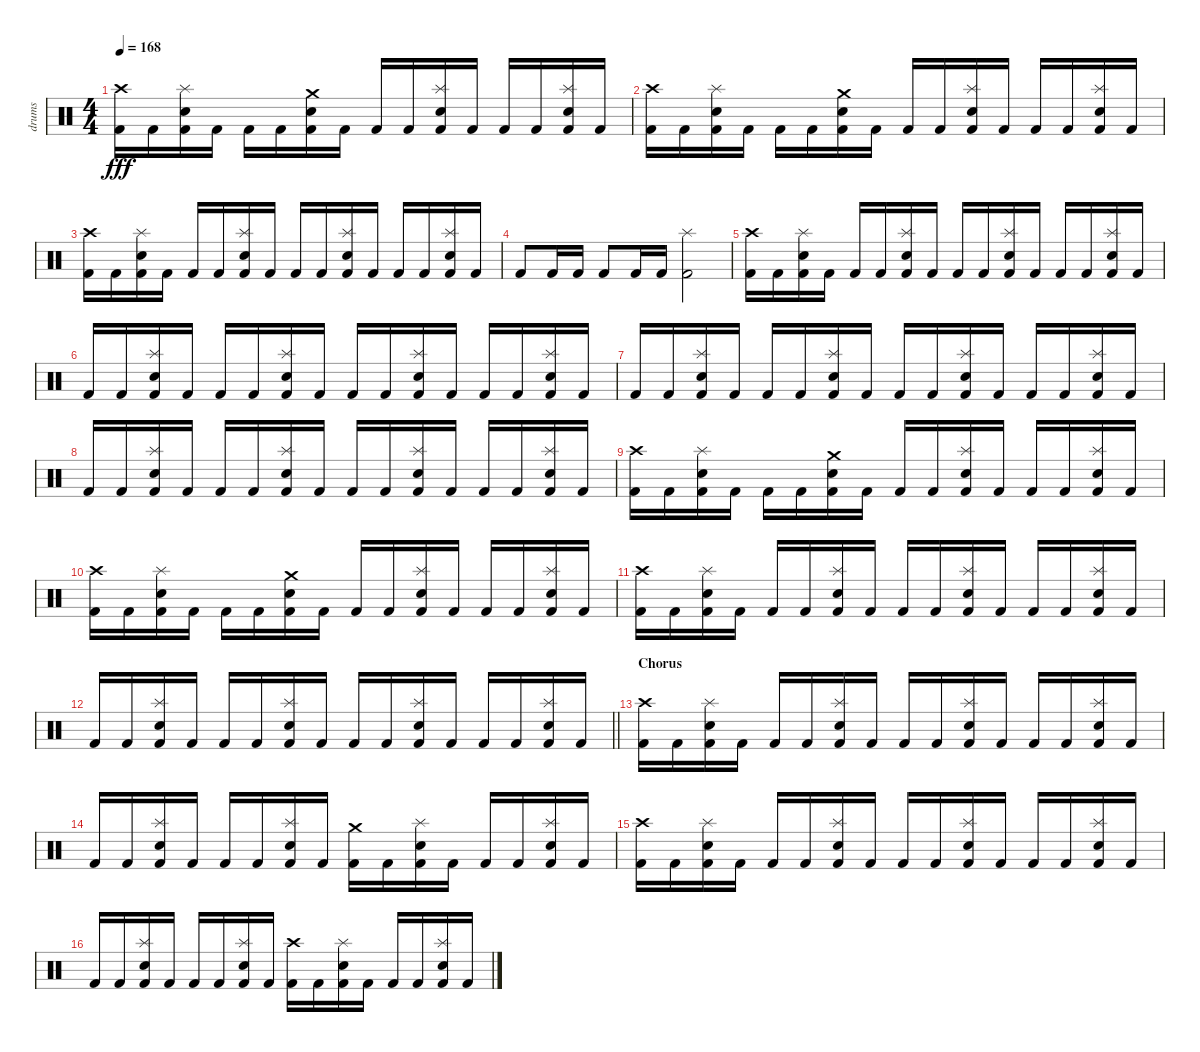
\track ("drums" "drums") {instrument percussion}
\staff {score}
\articulation defaults
\ts (4 4)
\tempo 168
\clef neutral
\ks c
("Crash high (hit)" "Kick (hit) 2").16{dy fff} "Kick (hit) 2".16 ("Splash (hit)" "Snare (hit) 2" "Kick (hit) 2").16 "Kick (hit) 2".16 "Kick (hit) 2".16 "Kick (hit) 2".16 ("Crash medium (hit)" "Snare (hit) 2" "Kick (hit) 2").16 "Kick (hit) 2".16 "Kick (hit) 2".16 "Kick (hit) 2".16 ("Splash (hit)" "Snare (hit) 2" "Kick (hit) 2").16 "Kick (hit) 2".16 "Kick (hit) 2".16 "Kick (hit) 2".16 ("Splash (hit)" "Snare (hit) 2" "Kick (hit) 2").16 "Kick (hit) 2".16 |
("Crash high (hit)" "Kick (hit) 2").16 "Kick (hit) 2".16 ("Splash (hit)" "Snare (hit) 2" "Kick (hit) 2").16 "Kick (hit) 2".16 "Kick (hit) 2".16 "Kick (hit) 2".16 ("Crash medium (hit)" "Snare (hit) 2" "Kick (hit) 2").16 "Kick (hit) 2".16 "Kick (hit) 2".16 "Kick (hit) 2".16 ("Splash (hit)" "Snare (hit) 2" "Kick (hit) 2").16 "Kick (hit) 2".16 "Kick (hit) 2".16 "Kick (hit) 2".16 ("Splash (hit)" "Snare (hit) 2" "Kick (hit) 2").16 "Kick (hit) 2".16 |
("Crash high (hit)" "Kick (hit) 2").16 "Kick (hit) 2".16 ("Splash (hit)" "Snare (hit) 2" "Kick (hit) 2").16 "Kick (hit) 2".16 "Kick (hit) 2".16 "Kick (hit) 2".16 ("Splash (hit)" "Snare (hit) 2" "Kick (hit) 2").16 "Kick (hit) 2".16 "Kick (hit) 2".16 "Kick (hit) 2".16 ("Splash (hit)" "Snare (hit) 2" "Kick (hit) 2").16 "Kick (hit) 2".16 "Kick (hit) 2".16 "Kick (hit) 2".16 ("Splash (hit)" "Snare (hit) 2" "Kick (hit) 2").16 "Kick (hit) 2".16 |
"Kick (hit) 2".8 "Kick (hit) 2".16 "Kick (hit) 2".16 "Kick (hit) 2".8 "Kick (hit) 2".16 "Kick (hit) 2".16 ("Splash (hit)" "Kick (hit) 2").2 |
("Crash high (hit)" "Kick (hit) 2").16 "Kick (hit) 2".16 ("Splash (hit)" "Snare (hit) 2" "Kick (hit) 2").16 "Kick (hit) 2".16 "Kick (hit) 2".16 "Kick (hit) 2".16 ("Splash (hit)" "Snare (hit) 2" "Kick (hit) 2").16 "Kick (hit) 2".16 "Kick (hit) 2".16 "Kick (hit) 2".16 ("Splash (hit)" "Snare (hit) 2" "Kick (hit) 2").16 "Kick (hit) 2".16 "Kick (hit) 2".16 "Kick (hit) 2".16 ("Splash (hit)" "Snare (hit) 2" "Kick (hit) 2").16 "Kick (hit) 2".16 |
"Kick (hit) 2".16 "Kick (hit) 2".16 ("Splash (hit)" "Snare (hit) 2" "Kick (hit) 2").16 "Kick (hit) 2".16 "Kick (hit) 2".16 "Kick (hit) 2".16 ("Splash (hit)" "Snare (hit) 2" "Kick (hit) 2").16 "Kick (hit) 2".16 "Kick (hit) 2".16 "Kick (hit) 2".16 ("Splash (hit)" "Snare (hit) 2" "Kick (hit) 2").16 "Kick (hit) 2".16 "Kick (hit) 2".16 "Kick (hit) 2".16 ("Splash (hit)" "Snare (hit) 2" "Kick (hit) 2").16 "Kick (hit) 2".16 |
"Kick (hit) 2".16 "Kick (hit) 2".16 ("Splash (hit)" "Snare (hit) 2" "Kick (hit) 2").16 "Kick (hit) 2".16 "Kick (hit) 2".16 "Kick (hit) 2".16 ("Splash (hit)" "Snare (hit) 2" "Kick (hit) 2").16 "Kick (hit) 2".16 "Kick (hit) 2".16 "Kick (hit) 2".16 ("Splash (hit)" "Snare (hit) 2" "Kick (hit) 2").16 "Kick (hit) 2".16 "Kick (hit) 2".16 "Kick (hit) 2".16 ("Splash (hit)" "Snare (hit) 2" "Kick (hit) 2").16 "Kick (hit) 2".16 |
"Kick (hit) 2".16 "Kick (hit) 2".16 ("Splash (hit)" "Snare (hit) 2" "Kick (hit) 2").16 "Kick (hit) 2".16 "Kick (hit) 2".16 "Kick (hit) 2".16 ("Splash (hit)" "Snare (hit) 2" "Kick (hit) 2").16 "Kick (hit) 2".16 "Kick (hit) 2".16 "Kick (hit) 2".16 ("Splash (hit)" "Snare (hit) 2" "Kick (hit) 2").16 "Kick (hit) 2".16 "Kick (hit) 2".16 "Kick (hit) 2".16 ("Splash (hit)" "Snare (hit) 2" "Kick (hit) 2").16 "Kick (hit) 2".16 |
("Crash high (hit)" "Kick (hit) 2").16 "Kick (hit) 2".16 ("Splash (hit)" "Snare (hit) 2" "Kick (hit) 2").16 "Kick (hit) 2".16 "Kick (hit) 2".16 "Kick (hit) 2".16 ("Crash medium (hit)" "Snare (hit) 2" "Kick (hit) 2").16 "Kick (hit) 2".16 "Kick (hit) 2".16 "Kick (hit) 2".16 ("Splash (hit)" "Snare (hit) 2" "Kick (hit) 2").16 "Kick (hit) 2".16 "Kick (hit) 2".16 "Kick (hit) 2".16 ("Splash (hit)" "Snare (hit) 2" "Kick (hit) 2").16 "Kick (hit) 2".16 |
("Crash high (hit)" "Kick (hit) 2").16 "Kick (hit) 2".16 ("Splash (hit)" "Snare (hit) 2" "Kick (hit) 2").16 "Kick (hit) 2".16 "Kick (hit) 2".16 "Kick (hit) 2".16 ("Crash medium (hit)" "Snare (hit) 2" "Kick (hit) 2").16 "Kick (hit) 2".16 "Kick (hit) 2".16 "Kick (hit) 2".16 ("Splash (hit)" "Snare (hit) 2" "Kick (hit) 2").16 "Kick (hit) 2".16 "Kick (hit) 2".16 "Kick (hit) 2".16 ("Splash (hit)" "Snare (hit) 2" "Kick (hit) 2").16 "Kick (hit) 2".16 |
("Crash high (hit)" "Kick (hit) 2").16 "Kick (hit) 2".16 ("Splash (hit)" "Snare (hit) 2" "Kick (hit) 2").16 "Kick (hit) 2".16 "Kick (hit) 2".16 "Kick (hit) 2".16 ("Splash (hit)" "Snare (hit) 2" "Kick (hit) 2").16 "Kick (hit) 2".16 "Kick (hit) 2".16 "Kick (hit) 2".16 ("Splash (hit)" "Snare (hit) 2" "Kick (hit) 2").16 "Kick (hit) 2".16 "Kick (hit) 2".16 "Kick (hit) 2".16 ("Splash (hit)" "Snare (hit) 2" "Kick (hit) 2").16 "Kick (hit) 2".16 |
\barLineRight lightlight "Kick (hit) 2".16 "Kick (hit) 2".16
("Splash (hit)" "Snare (hit) 2" "Kick (hit) 2").16 "Kick (hit) 2".16 "Kick (hit) 2".16 "Kick (hit) 2".16 ("Splash (hit)" "Snare (hit) 2" "Kick (hit) 2").16 "Kick (hit) 2".16 "Kick (hit) 2".16 "Kick (hit) 2".16 ("Splash (hit)" "Snare (hit) 2" "Kick (hit) 2").16 "Kick (hit) 2".16 "Kick (hit) 2".16 "Kick (hit) 2".16 ("Splash (hit)" "Snare (hit) 2" "Kick (hit) 2").16 "Kick (hit) 2".16 |
\section ("" "Chorus")
("Crash high (hit)" "Kick (hit) 2").16 "Kick (hit) 2".16 ("Splash (hit)" "Snare (hit) 2" "Kick (hit) 2").16 "Kick (hit) 2".16 "Kick (hit) 2".16 "Kick (hit) 2".16 ("Splash (hit)" "Snare (hit) 2" "Kick (hit) 2").16 "Kick (hit) 2".16 "Kick (hit) 2".16 "Kick (hit) 2".16 ("Splash (hit)" "Snare (hit) 2" "Kick (hit) 2").16 "Kick (hit) 2".16 "Kick (hit) 2".16 "Kick (hit) 2".16 ("Splash (hit)" "Snare (hit) 2" "Kick (hit) 2").16 "Kick (hit) 2".16 |
"Kick (hit) 2".16 "Kick (hit) 2".16 ("Splash (hit)" "Snare (hit) 2" "Kick (hit) 2").16 "Kick (hit) 2".16 "Kick (hit) 2".16 "Kick (hit) 2".16 ("Splash (hit)" "Snare (hit) 2" "Kick (hit) 2").16 "Kick (hit) 2".16 ("Crash medium (hit)" "Kick (hit) 2").16 "Kick (hit) 2".16 ("Splash (hit)" "Snare (hit) 2" "Kick (hit) 2").16 "Kick (hit) 2".16 "Kick (hit) 2".16 "Kick (hit) 2".16 ("Splash (hit)" "Snare (hit) 2" "Kick (hit) 2").16 "Kick (hit) 2".16 |
("Crash high (hit)" "Kick (hit) 2").16 "Kick (hit) 2".16 ("Splash (hit)" "Snare (hit) 2" "Kick (hit) 2").16 "Kick (hit) 2".16 "Kick (hit) 2".16 "Kick (hit) 2".16 ("Splash (hit)" "Snare (hit) 2" "Kick (hit) 2").16 "Kick (hit) 2".16 "Kick (hit) 2".16 "Kick (hit) 2".16 ("Splash (hit)" "Snare (hit) 2" "Kick (hit) 2").16 "Kick (hit) 2".16 "Kick (hit) 2".16 "Kick (hit) 2".16 ("Splash (hit)" "Snare (hit) 2" "Kick (hit) 2").16 "Kick (hit) 2".16 |
"Kick (hit) 2".16 "Kick (hit) 2".16 ("Splash (hit)" "Snare (hit) 2" "Kick (hit) 2").16 "Kick (hit) 2".16 "Kick (hit) 2".16 "Kick (hit) 2".16 ("Splash (hit)" "Snare (hit) 2" "Kick (hit) 2").16 "Kick (hit) 2".16 ("Crash high (hit)" "Kick (hit) 2").16 "Kick (hit) 2".16 ("Splash (hit)" "Snare (hit) 2" "Kick (hit) 2").16 "Kick (hit) 2".16 "Kick (hit) 2".16 "Kick (hit) 2".16 ("Splash (hit)" "Snare (hit) 2" "Kick (hit) 2").16 "Kick (hit) 2".16
